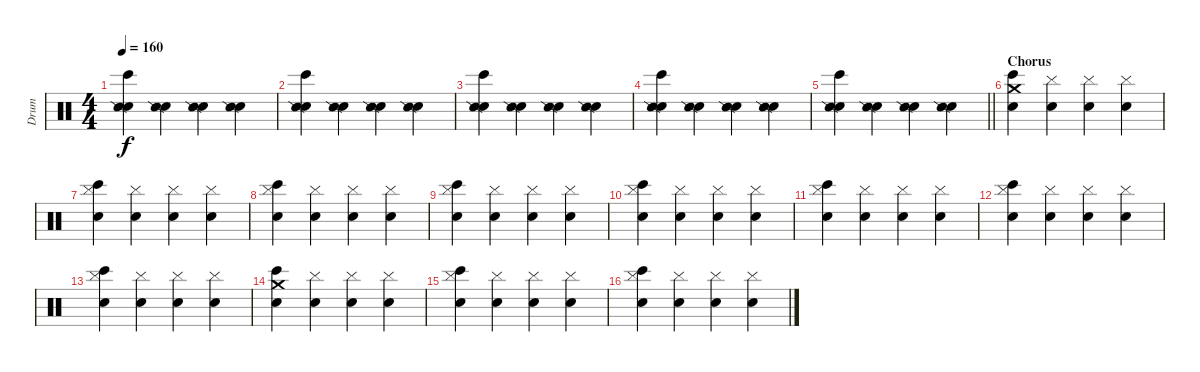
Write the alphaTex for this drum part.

\track ("Drum" "Drum") {instrument percussion}
\staff {score}
\articulation defaults
\ts (4 4)
\tempo 160
\clef neutral
\ks c
("Electric Snare (hit)" "Bongo High (hit)" "Snare (side stick) 2").4{dy f} ("Electric Snare (hit)" "Snare (side stick) 2").4 ("Electric Snare (hit)" "Snare (side stick) 2").4 ("Electric Snare (hit)" "Snare (side stick) 2").4 |
("Electric Snare (hit)" "Bongo High (hit)" "Snare (side stick) 2").4 ("Electric Snare (hit)" "Snare (side stick) 2").4 ("Electric Snare (hit)" "Snare (side stick) 2").4 ("Electric Snare (hit)" "Snare (side stick) 2").4 |
("Electric Snare (hit)" "Bongo High (hit)" "Snare (side stick) 2").4 ("Electric Snare (hit)" "Snare (side stick) 2").4 ("Electric Snare (hit)" "Snare (side stick) 2").4 ("Electric Snare (hit)" "Snare (side stick) 2").4 |
("Electric Snare (hit)" "Bongo High (hit)" "Snare (side stick) 2").4 ("Electric Snare (hit)" "Snare (side stick) 2").4 ("Electric Snare (hit)" "Snare (side stick) 2").4 ("Electric Snare (hit)" "Snare (side stick) 2").4 |
\barLineRight lightlight
("Electric Snare (hit)" "Bongo High (hit)" "Snare (side stick) 2").4 ("Electric Snare (hit)" "Snare (side stick) 2").4 ("Electric Snare (hit)" "Snare (side stick) 2").4 ("Electric Snare (hit)" "Snare (side stick) 2").4 |
\section ("" "Chorus")
("Electric Snare (hit)" "Bongo High (hit)" "Crash medium (hit)").4 ("Electric Snare (hit)" "Cymbal (hit)").4 ("Electric Snare (hit)" "Cymbal (hit)").4 ("Electric Snare (hit)" "Cymbal (hit)").4 |
("Electric Snare (hit)" "Bongo High (hit)" "Cymbal (hit)").4 ("Electric Snare (hit)" "Cymbal (hit)").4 ("Electric Snare (hit)" "Cymbal (hit)").4 ("Electric Snare (hit)" "Cymbal (hit)").4 |
("Electric Snare (hit)" "Bongo High (hit)" "Cymbal (hit)").4 ("Electric Snare (hit)" "Cymbal (hit)").4 ("Electric Snare (hit)" "Cymbal (hit)").4 ("Electric Snare (hit)" "Cymbal (hit)").4 |
("Electric Snare (hit)" "Bongo High (hit)" "Cymbal (hit)").4 ("Electric Snare (hit)" "Cymbal (hit)").4 ("Electric Snare (hit)" "Cymbal (hit)").4 ("Electric Snare (hit)" "Cymbal (hit)").4 |
("Electric Snare (hit)" "Bongo High (hit)" "Cymbal (hit)").4 ("Electric Snare (hit)" "Cymbal (hit)").4 ("Electric Snare (hit)" "Cymbal (hit)").4 ("Electric Snare (hit)" "Cymbal (hit)").4 |
("Electric Snare (hit)" "Bongo High (hit)" "Cymbal (hit)").4 ("Electric Snare (hit)" "Cymbal (hit)").4 ("Electric Snare (hit)" "Cymbal (hit)").4 ("Electric Snare (hit)" "Cymbal (hit)").4 |
("Electric Snare (hit)" "Bongo High (hit)" "Cymbal (hit)").4 ("Electric Snare (hit)" "Cymbal (hit)").4 ("Electric Snare (hit)" "Cymbal (hit)").4 ("Electric Snare (hit)" "Cymbal (hit)").4 |
("Electric Snare (hit)" "Bongo High (hit)" "Cymbal (hit)").4 ("Electric Snare (hit)" "Cymbal (hit)").4 ("Electric Snare (hit)" "Cymbal (hit)").4 ("Electric Snare (hit)" "Cymbal (hit)").4 |
("Electric Snare (hit)" "Bongo High (hit)" "Crash medium (hit)").4 ("Electric Snare (hit)" "Cymbal (hit)").4 ("Electric Snare (hit)" "Cymbal (hit)").4 ("Electric Snare (hit)" "Cymbal (hit)").4 |
("Electric Snare (hit)" "Bongo High (hit)" "Cymbal (hit)").4 ("Electric Snare (hit)" "Cymbal (hit)").4 ("Electric Snare (hit)" "Cymbal (hit)").4 ("Electric Snare (hit)" "Cymbal (hit)").4 |
("Electric Snare (hit)" "Bongo High (hit)" "Cymbal (hit)").4 ("Electric Snare (hit)" "Cymbal (hit)").4 ("Electric Snare (hit)" "Cymbal (hit)").4 ("Electric Snare (hit)" "Cymbal (hit)").4
